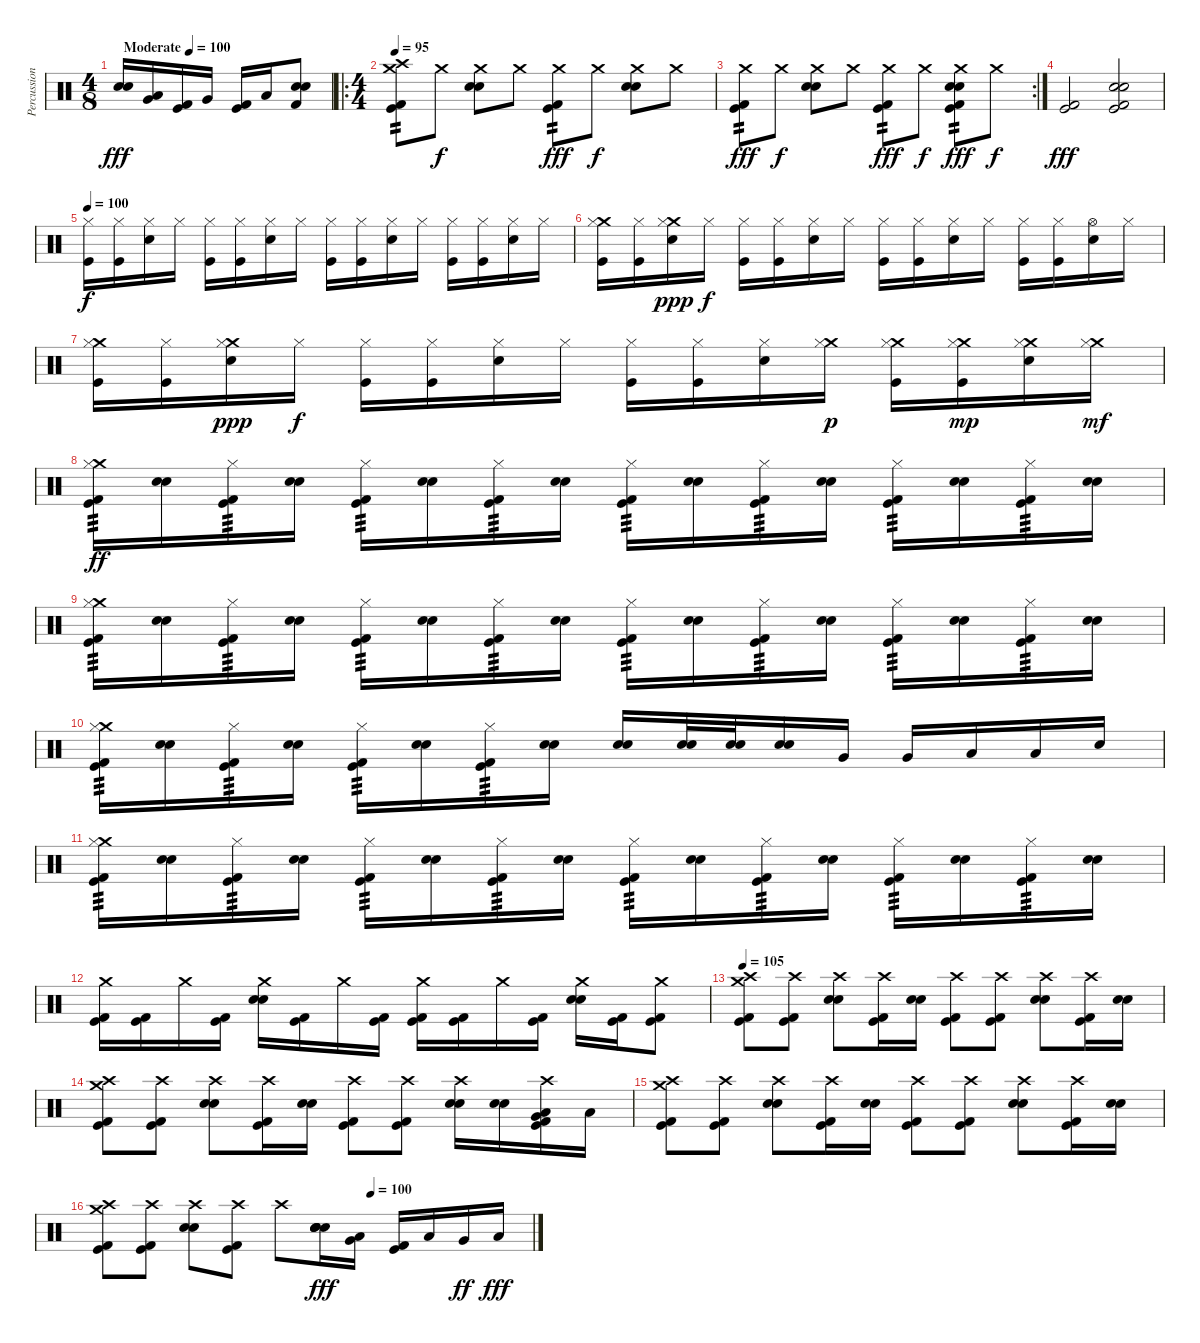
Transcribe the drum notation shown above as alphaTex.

\track ("Percussion" "Percussion") {instrument percussion}
\staff {score}
\articulation defaults
\ts (4 8)
\tempo (100 "Moderate")
\clef neutral
\ks c
("Snare (hit) 2" "Electric Snare (hit)").16{dy fff} ("Low Floor Tom (hit)" "Very Low Tom (hit)").16 ("Kick (hit)" "Kick (hit) 2").16 "Very Low Tom (hit)".16 ("Kick (hit)" "Kick (hit) 2").16 "Low Floor Tom (hit)".16 ("Snare (hit) 2" "Electric Snare (hit)" "Kick (hit) 2").8 |
\ro
\ts (4 4)
\tempo 95
("Crash high (hit)" "Crash medium (hit)" "Kick (hit)" "Kick (hit) 2").8{tp 2} "Crash medium (hit)".8{dy f} ("Crash medium (hit)" "Snare (hit) 2" "Electric Snare (hit)").8 "Crash medium (hit)".8 ("Crash medium (hit)" "Kick (hit)" "Kick (hit) 2").8{tp 2 dy fff} "Crash medium (hit)".8{dy f} ("Crash medium (hit)" "Snare (hit) 2" "Electric Snare (hit)").8 "Crash medium (hit)".8 |
\rc 2
("Crash medium (hit)" "Kick (hit)" "Kick (hit) 2").8{tp 2 dy fff} "Crash medium (hit)".8{dy f} ("Crash medium (hit)" "Snare (hit) 2" "Electric Snare (hit)").8 "Crash medium (hit)".8 ("Crash medium (hit)" "Kick (hit)" "Kick (hit) 2").8{tp 2 dy fff} "Crash medium (hit)".8{dy f} ("Crash medium (hit)" "Snare (hit) 2" "Electric Snare (hit)" "Kick (hit)" "Kick (hit) 2").8{tp 2 dy fff} "Crash medium (hit)".8{dy f} |
("Kick (hit)" "Kick (hit) 2").2{dy fff} ("Snare (hit) 2" "Electric Snare (hit)" "Kick (hit)" "Kick (hit) 2").2 |
\tempo 100
("Hi-Hat (closed)" "Kick (hit)").16{dy f} ("Hi-Hat (closed)" "Kick (hit)").16 ("Hi-Hat (closed)" "Electric Snare (hit)").16 "Hi-Hat (closed)".16 ("Hi-Hat (closed)" "Kick (hit)").16 ("Hi-Hat (closed)" "Kick (hit)").16 ("Hi-Hat (closed)" "Electric Snare (hit)").16 "Hi-Hat (closed)".16 ("Hi-Hat (closed)" "Kick (hit)").16 ("Hi-Hat (closed)" "Kick (hit)").16 ("Hi-Hat (closed)" "Electric Snare (hit)").16 "Hi-Hat (closed)".16 ("Hi-Hat (closed)" "Kick (hit)").16 ("Hi-Hat (closed)" "Kick (hit)").16 ("Hi-Hat (closed)" "Electric Snare (hit)").16 "Hi-Hat (closed)".16 |
("Crash medium (hit)" "Hi-Hat (closed)" "Kick (hit)").16 ("Hi-Hat (closed)" "Kick (hit)").16 ("Crash medium (hit)" "Hi-Hat (closed)" "Electric Snare (hit)").16{dy ppp} "Hi-Hat (closed)".16{dy f} ("Hi-Hat (closed)" "Kick (hit)").16 ("Hi-Hat (closed)" "Kick (hit)").16 ("Hi-Hat (closed)" "Electric Snare (hit)").16 "Hi-Hat (closed)".16 ("Hi-Hat (closed)" "Kick (hit)").16 ("Hi-Hat (closed)" "Kick (hit)").16 ("Hi-Hat (closed)" "Electric Snare (hit)").16 "Hi-Hat (closed)".16 ("Hi-Hat (closed)" "Kick (hit)").16 ("Hi-Hat (closed)" "Kick (hit)").16 ("Hi-Hat (open)" "Electric Snare (hit)").16 "Hi-Hat (closed)".16 |
("Crash medium (hit)" "Hi-Hat (closed)" "Kick (hit)").16 ("Hi-Hat (closed)" "Kick (hit)").16 ("Crash medium (hit)" "Hi-Hat (closed)" "Electric Snare (hit)").16{dy ppp} "Hi-Hat (closed)".16{dy f} ("Hi-Hat (closed)" "Kick (hit)").16 ("Hi-Hat (closed)" "Kick (hit)").16 ("Hi-Hat (closed)" "Electric Snare (hit)").16 "Hi-Hat (closed)".16 ("Hi-Hat (closed)" "Kick (hit)").16 ("Hi-Hat (closed)" "Kick (hit)").16 ("Hi-Hat (closed)" "Electric Snare (hit)").16 ("Crash medium (hit)" "Hi-Hat (closed)").16{dy p} ("Crash medium (hit)" "Hi-Hat (closed)" "Kick (hit)").16 ("Crash medium (hit)" "Hi-Hat (closed)" "Kick (hit)").16{dy mp} ("Crash medium (hit)" "Hi-Hat (closed)" "Electric Snare (hit)").16 ("Crash medium (hit)" "Hi-Hat (closed)").16{dy mf} |
("Crash medium (hit)" "Hi-Hat (closed)" "Kick (hit)" "Kick (hit) 2").16{tp 3 dy ff} ("Snare (hit) 2" "Electric Snare (hit)").16 ("Hi-Hat (closed)" "Kick (hit)" "Kick (hit) 2").16{tp 3} ("Snare (hit) 2" "Electric Snare (hit)").16 ("Hi-Hat (closed)" "Kick (hit)" "Kick (hit) 2").16{tp 3} ("Snare (hit) 2" "Electric Snare (hit)").16 ("Hi-Hat (closed)" "Kick (hit)" "Kick (hit) 2").16{tp 3} ("Snare (hit) 2" "Electric Snare (hit)").16 ("Hi-Hat (closed)" "Kick (hit)" "Kick (hit) 2").16{tp 3} ("Snare (hit) 2" "Electric Snare (hit)").16 ("Hi-Hat (closed)" "Kick (hit)" "Kick (hit) 2").16{tp 3} ("Snare (hit) 2" "Electric Snare (hit)").16 ("Hi-Hat (closed)" "Kick (hit)" "Kick (hit) 2").16{tp 3} ("Snare (hit) 2" "Electric Snare (hit)").16 ("Hi-Hat (closed)" "Kick (hit)" "Kick (hit) 2").16{tp 3} ("Snare (hit) 2" "Electric Snare (hit)").16 |
("Crash medium (hit)" "Hi-Hat (closed)" "Kick (hit)" "Kick (hit) 2").16{tp 3} ("Snare (hit) 2" "Electric Snare (hit)").16 ("Hi-Hat (closed)" "Kick (hit)" "Kick (hit) 2").16{tp 3} ("Snare (hit) 2" "Electric Snare (hit)").16 ("Hi-Hat (closed)" "Kick (hit)" "Kick (hit) 2").16{tp 3} ("Snare (hit) 2" "Electric Snare (hit)").16 ("Hi-Hat (closed)" "Kick (hit)" "Kick (hit) 2").16{tp 3} ("Snare (hit) 2" "Electric Snare (hit)").16 ("Hi-Hat (closed)" "Kick (hit)" "Kick (hit) 2").16{tp 3} ("Snare (hit) 2" "Electric Snare (hit)").16 ("Hi-Hat (closed)" "Kick (hit)" "Kick (hit) 2").16{tp 3} ("Snare (hit) 2" "Electric Snare (hit)").16 ("Hi-Hat (closed)" "Kick (hit)" "Kick (hit) 2").16{tp 3} ("Snare (hit) 2" "Electric Snare (hit)").16 ("Hi-Hat (closed)" "Kick (hit)" "Kick (hit) 2").16{tp 3} ("Snare (hit) 2" "Electric Snare (hit)").16 |
("Crash medium (hit)" "Hi-Hat (closed)" "Kick (hit)" "Kick (hit) 2").16{tp 3} ("Snare (hit) 2" "Electric Snare (hit)").16 ("Hi-Hat (closed)" "Kick (hit)" "Kick (hit) 2").16{tp 3} ("Snare (hit) 2" "Electric Snare (hit)").16 ("Hi-Hat (closed)" "Kick (hit)" "Kick (hit) 2").16{tp 3} ("Snare (hit) 2" "Electric Snare (hit)").16 ("Hi-Hat (closed)" "Kick (hit)" "Kick (hit) 2").16{tp 3} ("Snare (hit) 2" "Electric Snare (hit)").16 ("Snare (hit) 2" "Electric Snare (hit)").16 ("Snare (hit) 2" "Electric Snare (hit)").32 ("Snare (hit) 2" "Electric Snare (hit)").32 ("Snare (hit) 2" "Electric Snare (hit)").16 "Very Low Tom (hit)".16 "Very Low Tom (hit)".16 "Low Floor Tom (hit)".16 "Low Floor Tom (hit)".16 "Electric Snare (hit)".16 |
("Crash medium (hit)" "Hi-Hat (closed)" "Kick (hit)" "Kick (hit) 2").16{tp 3} ("Snare (hit) 2" "Electric Snare (hit)").16 ("Hi-Hat (closed)" "Kick (hit)" "Kick (hit) 2").16{tp 3} ("Snare (hit) 2" "Electric Snare (hit)").16 ("Hi-Hat (closed)" "Kick (hit)" "Kick (hit) 2").16{tp 3} ("Snare (hit) 2" "Electric Snare (hit)").16 ("Hi-Hat (closed)" "Kick (hit)" "Kick (hit) 2").16{tp 3} ("Snare (hit) 2" "Electric Snare (hit)").16 ("Hi-Hat (closed)" "Kick (hit)" "Kick (hit) 2").16{tp 3} ("Snare (hit) 2" "Electric Snare (hit)").16 ("Hi-Hat (closed)" "Kick (hit)" "Kick (hit) 2").16{tp 3} ("Snare (hit) 2" "Electric Snare (hit)").16 ("Hi-Hat (closed)" "Kick (hit)" "Kick (hit) 2").16{tp 3} ("Snare (hit) 2" "Electric Snare (hit)").16 ("Hi-Hat (closed)" "Kick (hit)" "Kick (hit) 2").16{tp 3} ("Snare (hit) 2" "Electric Snare (hit)").16 |
("Crash medium (hit)" "Kick (hit)" "Kick (hit) 2").16 ("Kick (hit)" "Kick (hit) 2").16 "Crash medium (hit)".16 ("Kick (hit)" "Kick (hit) 2").16 ("Crash medium (hit)" "Snare (hit) 2" "Electric Snare (hit)").16 ("Kick (hit)" "Kick (hit) 2").16 "Crash medium (hit)".16 ("Kick (hit)" "Kick (hit) 2").16 ("Crash medium (hit)" "Kick (hit)" "Kick (hit) 2").16 ("Kick (hit)" "Kick (hit) 2").16 "Crash medium (hit)".16 ("Kick (hit)" "Kick (hit) 2").16 ("Crash medium (hit)" "Snare (hit) 2" "Electric Snare (hit)").16 ("Kick (hit)" "Kick (hit) 2").16 ("Crash medium (hit)" "Kick (hit)" "Kick (hit) 2").8 |
\tempo 105
("Crash high (hit)" "Crash medium (hit)" "Kick (hit)" "Kick (hit) 2").8 ("Crash high (hit)" "Kick (hit)" "Kick (hit) 2").8 ("Crash high (hit)" "Snare (hit) 2" "Electric Snare (hit)").8 ("Crash high (hit)" "Kick (hit)" "Kick (hit) 2").16 ("Snare (hit) 2" "Electric Snare (hit)").16 ("Crash high (hit)" "Kick (hit)" "Kick (hit) 2").8 ("Crash high (hit)" "Kick (hit)" "Kick (hit) 2").8 ("Crash high (hit)" "Snare (hit) 2" "Electric Snare (hit)").8 ("Crash high (hit)" "Kick (hit)" "Kick (hit) 2").16 ("Snare (hit) 2" "Electric Snare (hit)").16 |
("Crash high (hit)" "Crash medium (hit)" "Kick (hit)" "Kick (hit) 2").8 ("Crash high (hit)" "Kick (hit)" "Kick (hit) 2").8 ("Crash high (hit)" "Snare (hit) 2" "Electric Snare (hit)").8 ("Crash high (hit)" "Kick (hit)" "Kick (hit) 2").16 ("Snare (hit) 2" "Electric Snare (hit)").16 ("Crash high (hit)" "Kick (hit)" "Kick (hit) 2").8 ("Crash high (hit)" "Kick (hit)" "Kick (hit) 2").8 ("Crash high (hit)" "Snare (hit) 2" "Electric Snare (hit)").16 ("Snare (hit) 2" "Electric Snare (hit)").16 ("Crash high (hit)" "Low Floor Tom (hit)" "Very Low Tom (hit)" "Kick (hit)" "Kick (hit) 2").16 "Low Floor Tom (hit)".16 |
("Crash high (hit)" "Crash medium (hit)" "Kick (hit)" "Kick (hit) 2").8 ("Crash high (hit)" "Kick (hit)" "Kick (hit) 2").8 ("Crash high (hit)" "Snare (hit) 2" "Electric Snare (hit)").8 ("Crash high (hit)" "Kick (hit)" "Kick (hit) 2").16 ("Snare (hit) 2" "Electric Snare (hit)").16 ("Crash high (hit)" "Kick (hit)" "Kick (hit) 2").8 ("Crash high (hit)" "Kick (hit)" "Kick (hit) 2").8 ("Crash high (hit)" "Snare (hit) 2" "Electric Snare (hit)").8 ("Crash high (hit)" "Kick (hit)" "Kick (hit) 2").16 ("Snare (hit) 2" "Electric Snare (hit)").16 |
\tempo (100 0.625)
("Crash high (hit)" "Crash medium (hit)" "Kick (hit)" "Kick (hit) 2").8 ("Crash high (hit)" "Kick (hit)" "Kick (hit) 2").8 ("Crash high (hit)" "Snare (hit) 2" "Electric Snare (hit)").8 ("Crash high (hit)" "Kick (hit)" "Kick (hit) 2").8 "Crash high (hit)".8 ("Snare (hit) 2" "Electric Snare (hit)" "Snare (hit) 2" "Electric Snare (hit)").16{dy fff} ("Low Floor Tom (hit)" "Very Low Tom (hit)").16 ("Kick (hit)" "Kick (hit) 2").16 "Low Tom (hit)".16 "Very Low Tom (hit)".16{dy ff} "Low Floor Tom (hit)".16{dy fff}
